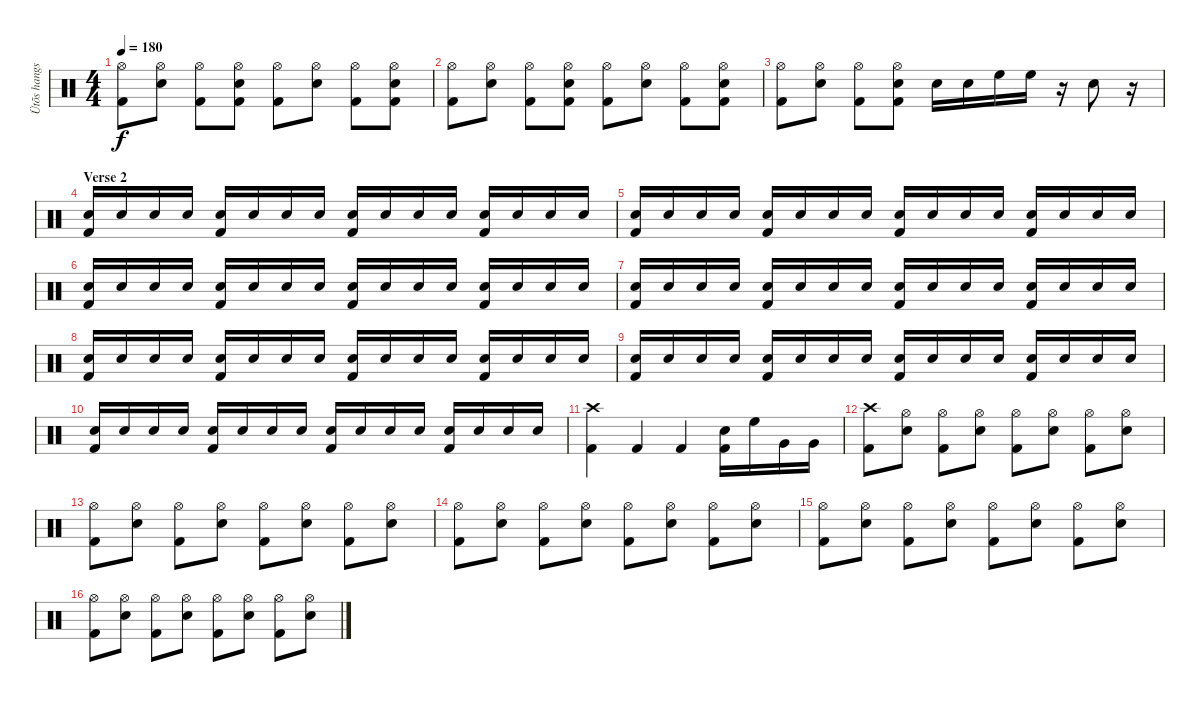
\track ("Ütõs hangszer" "Ütõs hangs") {instrument percussion}
\staff {score}
\articulation defaults
\ts (4 4)
\tempo 180
\clef neutral
\ks c
("Hi-Hat (open)" "Kick (hit) 2").8{dy f} ("Hi-Hat (open)" "Electric Snare (hit)").8 ("Hi-Hat (open)" "Kick (hit) 2").8 ("Hi-Hat (open)" "Electric Snare (hit)" "Kick (hit) 2").8 ("Hi-Hat (open)" "Kick (hit) 2").8 ("Hi-Hat (open)" "Electric Snare (hit)").8 ("Hi-Hat (open)" "Kick (hit) 2").8 ("Hi-Hat (open)" "Electric Snare (hit)" "Kick (hit) 2").8 |
("Hi-Hat (open)" "Kick (hit) 2").8 ("Hi-Hat (open)" "Electric Snare (hit)").8 ("Hi-Hat (open)" "Kick (hit) 2").8 ("Hi-Hat (open)" "Electric Snare (hit)" "Kick (hit) 2").8 ("Hi-Hat (open)" "Kick (hit) 2").8 ("Hi-Hat (open)" "Electric Snare (hit)").8 ("Hi-Hat (open)" "Kick (hit) 2").8 ("Hi-Hat (open)" "Electric Snare (hit)" "Kick (hit) 2").8 |
("Hi-Hat (open)" "Kick (hit) 2").8 ("Hi-Hat (open)" "Electric Snare (hit)").8 ("Hi-Hat (open)" "Kick (hit) 2").8 ("Hi-Hat (open)" "Electric Snare (hit)" "Kick (hit) 2").8 "Electric Snare (hit)".16 "Electric Snare (hit)".16 "High Floor Tom (hit)".16 "High Floor Tom (hit)".16 r.16 "Electric Snare (hit)".8 r.16 |
\section ("" "Verse 2")
("Snare (hit) 2" "Kick (hit) 2").16 "Electric Snare (hit)".16 "Electric Snare (hit)".16 "Electric Snare (hit)".16 ("Snare (hit) 2" "Kick (hit) 2").16 "Electric Snare (hit)".16 "Electric Snare (hit)".16 "Electric Snare (hit)".16 ("Snare (hit) 2" "Kick (hit) 2").16 "Electric Snare (hit)".16 "Electric Snare (hit)".16 "Electric Snare (hit)".16 ("Snare (hit) 2" "Kick (hit) 2").16 "Electric Snare (hit)".16 "Electric Snare (hit)".16 "Electric Snare (hit)".16 |
("Snare (hit) 2" "Kick (hit) 2").16 "Electric Snare (hit)".16 "Electric Snare (hit)".16 "Electric Snare (hit)".16 ("Snare (hit) 2" "Kick (hit) 2").16 "Electric Snare (hit)".16 "Electric Snare (hit)".16 "Electric Snare (hit)".16 ("Snare (hit) 2" "Kick (hit) 2").16 "Electric Snare (hit)".16 "Electric Snare (hit)".16 "Electric Snare (hit)".16 ("Snare (hit) 2" "Kick (hit) 2").16 "Electric Snare (hit)".16 "Electric Snare (hit)".16 "Electric Snare (hit)".16 |
("Snare (hit) 2" "Kick (hit) 2").16 "Electric Snare (hit)".16 "Electric Snare (hit)".16 "Electric Snare (hit)".16 ("Snare (hit) 2" "Kick (hit) 2").16 "Electric Snare (hit)".16 "Electric Snare (hit)".16 "Electric Snare (hit)".16 ("Snare (hit) 2" "Kick (hit) 2").16 "Electric Snare (hit)".16 "Electric Snare (hit)".16 "Electric Snare (hit)".16 ("Snare (hit) 2" "Kick (hit) 2").16 "Electric Snare (hit)".16 "Electric Snare (hit)".16 "Electric Snare (hit)".16 |
("Snare (hit) 2" "Kick (hit) 2").16 "Electric Snare (hit)".16 "Electric Snare (hit)".16 "Electric Snare (hit)".16 ("Snare (hit) 2" "Kick (hit) 2").16 "Electric Snare (hit)".16 "Electric Snare (hit)".16 "Electric Snare (hit)".16 ("Snare (hit) 2" "Kick (hit) 2").16 "Electric Snare (hit)".16 "Electric Snare (hit)".16 "Electric Snare (hit)".16 ("Snare (hit) 2" "Kick (hit) 2").16 "Electric Snare (hit)".16 "Electric Snare (hit)".16 "Electric Snare (hit)".16 |
("Snare (hit) 2" "Kick (hit) 2").16 "Electric Snare (hit)".16 "Electric Snare (hit)".16 "Electric Snare (hit)".16 ("Snare (hit) 2" "Kick (hit) 2").16 "Electric Snare (hit)".16 "Electric Snare (hit)".16 "Electric Snare (hit)".16 ("Snare (hit) 2" "Kick (hit) 2").16 "Electric Snare (hit)".16 "Electric Snare (hit)".16 "Electric Snare (hit)".16 ("Snare (hit) 2" "Kick (hit) 2").16 "Electric Snare (hit)".16 "Electric Snare (hit)".16 "Electric Snare (hit)".16 |
("Snare (hit) 2" "Kick (hit) 2").16 "Electric Snare (hit)".16 "Electric Snare (hit)".16 "Electric Snare (hit)".16 ("Snare (hit) 2" "Kick (hit) 2").16 "Electric Snare (hit)".16 "Electric Snare (hit)".16 "Electric Snare (hit)".16 ("Snare (hit) 2" "Kick (hit) 2").16 "Electric Snare (hit)".16 "Electric Snare (hit)".16 "Electric Snare (hit)".16 ("Snare (hit) 2" "Kick (hit) 2").16 "Electric Snare (hit)".16 "Electric Snare (hit)".16 "Electric Snare (hit)".16 |
("Snare (hit) 2" "Kick (hit) 2").16 "Electric Snare (hit)".16 "Electric Snare (hit)".16 "Electric Snare (hit)".16 ("Snare (hit) 2" "Kick (hit) 2").16 "Electric Snare (hit)".16 "Electric Snare (hit)".16 "Electric Snare (hit)".16 ("Snare (hit) 2" "Kick (hit) 2").16 "Electric Snare (hit)".16 "Electric Snare (hit)".16 "Electric Snare (hit)".16 ("Snare (hit) 2" "Kick (hit) 2").16 "Electric Snare (hit)".16 "Electric Snare (hit)".16 "Electric Snare (hit)".16 |
("Crash high (hit)" "Kick (hit) 2").4 "Kick (hit) 2".4 "Kick (hit) 2".4 ("Electric Snare (hit)" "Kick (hit) 2").16 "High Floor Tom (hit)".16 "Very Low Tom (hit)".16 "Very Low Tom (hit)".16 |
("Crash high (hit)" "Kick (hit) 2").8 ("Hi-Hat (open)" "Electric Snare (hit)").8 ("Hi-Hat (open)" "Kick (hit) 2").8 ("Hi-Hat (open)" "Electric Snare (hit)").8 ("Hi-Hat (open)" "Kick (hit) 2").8 ("Hi-Hat (open)" "Electric Snare (hit)").8 ("Hi-Hat (open)" "Kick (hit) 2").8 ("Hi-Hat (open)" "Electric Snare (hit)").8 |
("Hi-Hat (open)" "Kick (hit) 2").8 ("Hi-Hat (open)" "Electric Snare (hit)").8 ("Hi-Hat (open)" "Kick (hit) 2").8 ("Hi-Hat (open)" "Electric Snare (hit)").8 ("Hi-Hat (open)" "Kick (hit) 2").8 ("Hi-Hat (open)" "Electric Snare (hit)").8 ("Hi-Hat (open)" "Kick (hit) 2").8 ("Hi-Hat (open)" "Electric Snare (hit)").8 |
("Hi-Hat (open)" "Kick (hit) 2").8 ("Hi-Hat (open)" "Electric Snare (hit)").8 ("Hi-Hat (open)" "Kick (hit) 2").8 ("Hi-Hat (open)" "Electric Snare (hit)").8 ("Hi-Hat (open)" "Kick (hit) 2").8 ("Hi-Hat (open)" "Electric Snare (hit)").8 ("Hi-Hat (open)" "Kick (hit) 2").8 ("Hi-Hat (open)" "Electric Snare (hit)").8 |
("Hi-Hat (open)" "Kick (hit) 2").8 ("Hi-Hat (open)" "Electric Snare (hit)").8 ("Hi-Hat (open)" "Kick (hit) 2").8 ("Hi-Hat (open)" "Electric Snare (hit)").8 ("Hi-Hat (open)" "Kick (hit) 2").8 ("Hi-Hat (open)" "Electric Snare (hit)").8 ("Hi-Hat (open)" "Kick (hit) 2").8 ("Hi-Hat (open)" "Electric Snare (hit)").8 |
("Hi-Hat (open)" "Kick (hit) 2").8 ("Hi-Hat (open)" "Electric Snare (hit)").8 ("Hi-Hat (open)" "Kick (hit) 2").8 ("Hi-Hat (open)" "Electric Snare (hit)").8 ("Hi-Hat (open)" "Kick (hit) 2").8 ("Hi-Hat (open)" "Electric Snare (hit)").8 ("Hi-Hat (open)" "Kick (hit) 2").8 ("Hi-Hat (open)" "Electric Snare (hit)").8
